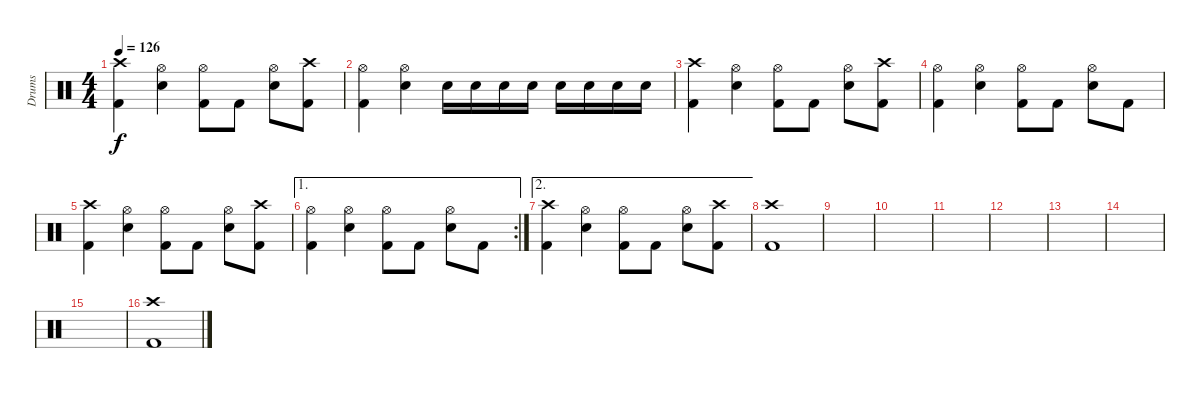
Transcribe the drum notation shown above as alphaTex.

\track ("Drums" "Drums") {instrument percussion}
\staff {score}
\articulation defaults
\ts (4 4)
\tempo 126
\clef neutral
\ks c
("Crash high (hit)" "Kick (hit) 2").4{dy f} ("Hi-Hat (open)" "Snare (hit) 2").4 ("Hi-Hat (open)" "Kick (hit) 2").8 "Kick (hit) 2".8 ("Hi-Hat (open)" "Snare (hit) 2").8 ("Crash high (hit)" "Kick (hit) 2").8 |
("Hi-Hat (open)" "Kick (hit) 2").4 ("Hi-Hat (open)" "Snare (hit) 2").4 "Snare (hit) 2".16 "Snare (hit) 2".16 "Snare (hit) 2".16 "Snare (hit) 2".16 "Snare (hit) 2".16 "Snare (hit) 2".16 "Snare (hit) 2".16 "Snare (hit) 2".16 |
("Crash high (hit)" "Kick (hit) 2").4 ("Hi-Hat (open)" "Snare (hit) 2").4 ("Hi-Hat (open)" "Kick (hit) 2").8 "Kick (hit) 2".8 ("Hi-Hat (open)" "Snare (hit) 2").8 ("Crash high (hit)" "Kick (hit) 2").8 |
("Hi-Hat (open)" "Kick (hit) 2").4 ("Hi-Hat (open)" "Snare (hit) 2").4 ("Hi-Hat (open)" "Kick (hit) 2").8 "Kick (hit) 2".8 ("Hi-Hat (open)" "Snare (hit) 2").8 "Kick (hit) 2".8 |
("Crash high (hit)" "Kick (hit) 2").4 ("Hi-Hat (open)" "Snare (hit) 2").4 ("Hi-Hat (open)" "Kick (hit) 2").8 "Kick (hit) 2".8 ("Hi-Hat (open)" "Snare (hit) 2").8 ("Crash high (hit)" "Kick (hit) 2").8 |
\ae 1
\rc 2
("Hi-Hat (open)" "Kick (hit) 2").4 ("Hi-Hat (open)" "Snare (hit) 2").4 ("Hi-Hat (open)" "Kick (hit) 2").8 "Kick (hit) 2".8 ("Hi-Hat (open)" "Snare (hit) 2").8 "Kick (hit) 2".8 |
\ae 2
("Crash high (hit)" "Kick (hit) 2").4 ("Hi-Hat (open)" "Snare (hit) 2").4 ("Hi-Hat (open)" "Kick (hit) 2").8 "Kick (hit) 2".8 ("Hi-Hat (open)" "Snare (hit) 2").8 ("Crash high (hit)" "Kick (hit) 2").8 |
("Crash high (hit)" "Kick (hit) 2").1 |
|
|
|
|
|
|
|
("Crash high (hit)" "Kick (hit) 2").1
